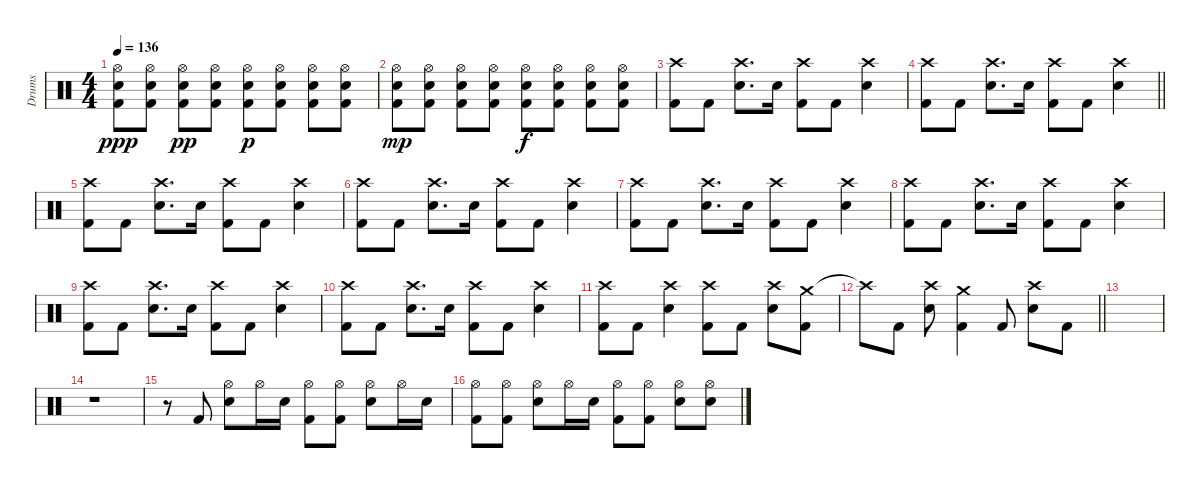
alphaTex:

\track ("Drums" "Drums") {instrument percussion}
\staff {score}
\articulation defaults
\ts (4 4)
\tempo 136
\clef neutral
\ks c
("Hi-Hat (open)" "Snare (hit) 2" "Kick (hit) 2").8{dy ppp} ("Hi-Hat (open)" "Snare (hit) 2" "Kick (hit) 2").8 ("Hi-Hat (open)" "Snare (hit) 2" "Kick (hit) 2").8{dy pp} ("Hi-Hat (open)" "Snare (hit) 2" "Kick (hit) 2").8 ("Hi-Hat (open)" "Snare (hit) 2" "Kick (hit) 2").8{dy p} ("Hi-Hat (open)" "Snare (hit) 2" "Kick (hit) 2").8 ("Hi-Hat (open)" "Snare (hit) 2" "Kick (hit) 2").8 ("Hi-Hat (open)" "Snare (hit) 2" "Kick (hit) 2").8 |
("Hi-Hat (open)" "Snare (hit) 2" "Kick (hit) 2").8{dy mp} ("Hi-Hat (open)" "Snare (hit) 2" "Kick (hit) 2").8 ("Hi-Hat (open)" "Snare (hit) 2" "Kick (hit) 2").8 ("Hi-Hat (open)" "Snare (hit) 2" "Kick (hit) 2").8 ("Hi-Hat (open)" "Snare (hit) 2" "Kick (hit) 2").8{dy f} ("Hi-Hat (open)" "Snare (hit) 2" "Kick (hit) 2").8 ("Hi-Hat (open)" "Snare (hit) 2" "Kick (hit) 2").8 ("Hi-Hat (open)" "Snare (hit) 2" "Kick (hit) 2").8 |
("Crash high (hit)" "Kick (hit) 2").8 "Kick (hit) 2".8 ("Crash high (hit)" "Snare (hit) 2").8{d} "Snare (hit) 2".16 ("Crash high (hit)" "Kick (hit) 2").8 "Kick (hit) 2".8 ("Crash high (hit)" "Snare (hit) 2").4 |
\barLineRight lightlight
("Crash high (hit)" "Kick (hit) 2").8 "Kick (hit) 2".8 ("Crash high (hit)" "Snare (hit) 2").8{d} "Snare (hit) 2".16 ("Crash high (hit)" "Kick (hit) 2").8 "Kick (hit) 2".8 ("Crash high (hit)" "Snare (hit) 2").4 |
\section ("" "")
("Crash high (hit)" "Kick (hit) 2").8 "Kick (hit) 2".8 ("Crash high (hit)" "Snare (hit) 2").8{d} "Snare (hit) 2".16 ("Crash high (hit)" "Kick (hit) 2").8 "Kick (hit) 2".8 ("Crash high (hit)" "Snare (hit) 2").4 |
("Crash high (hit)" "Kick (hit) 2").8 "Kick (hit) 2".8 ("Crash high (hit)" "Snare (hit) 2").8{d} "Snare (hit) 2".16 ("Crash high (hit)" "Kick (hit) 2").8 "Kick (hit) 2".8 ("Crash high (hit)" "Snare (hit) 2").4 |
("Crash high (hit)" "Kick (hit) 2").8 "Kick (hit) 2".8 ("Crash high (hit)" "Snare (hit) 2").8{d} "Snare (hit) 2".16 ("Crash high (hit)" "Kick (hit) 2").8 "Kick (hit) 2".8 ("Crash high (hit)" "Snare (hit) 2").4 |
("Crash high (hit)" "Kick (hit) 2").8 "Kick (hit) 2".8 ("Crash high (hit)" "Snare (hit) 2").8{d} "Snare (hit) 2".16 ("Crash high (hit)" "Kick (hit) 2").8 "Kick (hit) 2".8 ("Crash high (hit)" "Snare (hit) 2").4 |
("Crash high (hit)" "Kick (hit) 2").8 "Kick (hit) 2".8 ("Crash high (hit)" "Snare (hit) 2").8{d} "Snare (hit) 2".16 ("Crash high (hit)" "Kick (hit) 2").8 "Kick (hit) 2".8 ("Crash high (hit)" "Snare (hit) 2").4 |
("Crash high (hit)" "Kick (hit) 2").8 "Kick (hit) 2".8 ("Crash high (hit)" "Snare (hit) 2").8{d} "Snare (hit) 2".16 ("Crash high (hit)" "Kick (hit) 2").8 "Kick (hit) 2".8 ("Crash high (hit)" "Snare (hit) 2").4 |
("Crash high (hit)" "Kick (hit) 2").8 "Kick (hit) 2".8 ("Crash high (hit)" "Snare (hit) 2").4 ("Crash high (hit)" "Kick (hit) 2").8 "Kick (hit) 2".8 ("Crash high (hit)" "Snare (hit) 2").8 ("Crash medium (hit)" "Kick (hit) 2").8 |
\barLineRight lightlight "Crash high (hit)"{t}.8 "Kick (hit) 2".8
("Crash high (hit)" "Snare (hit) 2").8 ("Crash medium (hit)" "Kick (hit) 2").4 "Kick (hit) 2".8 ("Crash high (hit)" "Snare (hit) 2").8 "Kick (hit) 2".8 |
\section ("" "")
|
r.1 |
r.8 "Kick (hit) 2".8 ("Hi-Hat (open)" "Snare (hit) 2").8 "Hi-Hat (open)".16 "Snare (hit) 2".16 ("Hi-Hat (open)" "Kick (hit) 2").8 ("Hi-Hat (open)" "Kick (hit) 2").8 ("Hi-Hat (open)" "Snare (hit) 2").8 "Hi-Hat (open)".16 "Snare (hit) 2".16 |
("Hi-Hat (open)" "Kick (hit) 2").8 ("Hi-Hat (open)" "Kick (hit) 2").8 ("Hi-Hat (open)" "Snare (hit) 2").8 "Hi-Hat (open)".16 "Snare (hit) 2".16 ("Hi-Hat (open)" "Kick (hit) 2").8 ("Hi-Hat (open)" "Kick (hit) 2").8 ("Hi-Hat (open)" "Snare (hit) 2").8 ("Hi-Hat (open)" "Snare (hit) 2").8
